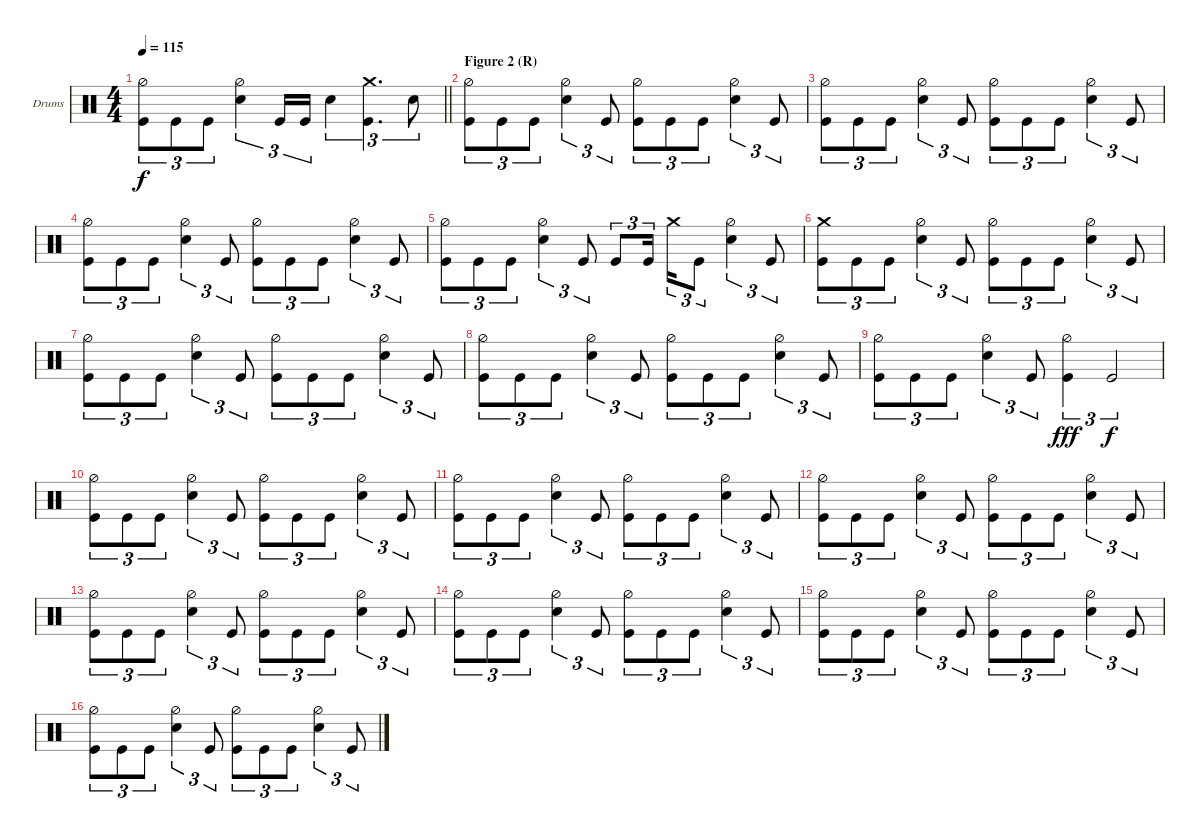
\defaultSystemsLayout 4
\bracketExtendMode groupsimilarinstruments
\firstSystemTrackNameOrientation horizontal
\otherSystemsTrackNameOrientation horizontal
\track ("Drums" "Drums") {instrument percussion}
\staff {score}
\articulation defaults
\ts (4 4)
\tempo 115
\clef neutral
\barLineRight lightlight
\ks aminor
("Kick (hit)" "Hi-Hat (half)").8{tu (3 2) dy f} "Kick (hit)".8{tu (3 2)} "Kick (hit)".8{tu (3 2)} ("Snare (hit) 2" "Hi-Hat (half)").4{tu (3 2)} "Kick (hit)".16{tu (3 2)} "Kick (hit)".16{tu (3 2)} "Snare (hit) 2".4{tu (3 2)} ("Crash medium (hit)" "Kick (hit)").4{d tu (3 2)} "Snare (hit) 2".8{tu (3 2)} |
\section ("" "Figure 2 (R)")
("Kick (hit)" "Hi-Hat (half)").8{tu (3 2)} "Kick (hit)".8{tu (3 2)} "Kick (hit)".8{tu (3 2)} ("Snare (hit) 2" "Hi-Hat (half)").4{tu (3 2)} "Kick (hit)".8{tu (3 2)} ("Kick (hit)" "Hi-Hat (half)").8{tu (3 2)} "Kick (hit)".8{tu (3 2)} "Kick (hit)".8{tu (3 2)} ("Snare (hit) 2" "Hi-Hat (half)").4{tu (3 2)} "Kick (hit)".8{tu (3 2)} |
("Kick (hit)" "Hi-Hat (half)").8{tu (3 2)} "Kick (hit)".8{tu (3 2)} "Kick (hit)".8{tu (3 2)} ("Snare (hit) 2" "Hi-Hat (half)").4{tu (3 2)} "Kick (hit)".8{tu (3 2)} ("Kick (hit)" "Hi-Hat (half)").8{tu (3 2)} "Kick (hit)".8{tu (3 2)} "Kick (hit)".8{tu (3 2)} ("Snare (hit) 2" "Hi-Hat (half)").4{tu (3 2)} "Kick (hit)".8{tu (3 2)} |
("Kick (hit)" "Hi-Hat (half)").8{tu (3 2)} "Kick (hit)".8{tu (3 2)} "Kick (hit)".8{tu (3 2)} ("Snare (hit) 2" "Hi-Hat (half)").4{tu (3 2)} "Kick (hit)".8{tu (3 2)} ("Kick (hit)" "Hi-Hat (half)").8{tu (3 2)} "Kick (hit)".8{tu (3 2)} "Kick (hit)".8{tu (3 2)} ("Snare (hit) 2" "Hi-Hat (half)").4{tu (3 2)} "Kick (hit)".8{tu (3 2)} |
("Kick (hit)" "Hi-Hat (half)").8{tu (3 2)} "Kick (hit)".8{tu (3 2)} "Kick (hit)".8{tu (3 2)} ("Snare (hit) 2" "Hi-Hat (half)").4{tu (3 2)} "Kick (hit)".8{tu (3 2)} "Kick (hit)".8{tu (3 2)} "Kick (hit)".16{tu (3 2)} "Crash medium (hit)".16{tu (3 2)} "Kick (hit)".8{tu (3 2)} ("Snare (hit) 2" "Hi-Hat (half)").4{tu (3 2)} "Kick (hit)".8{tu (3 2)} |
("Kick (hit)" "Crash medium (hit)").8{tu (3 2)} "Kick (hit)".8{tu (3 2)} "Kick (hit)".8{tu (3 2)} ("Snare (hit) 2" "Hi-Hat (half)").4{tu (3 2)} "Kick (hit)".8{tu (3 2)} ("Kick (hit)" "Hi-Hat (half)").8{tu (3 2)} "Kick (hit)".8{tu (3 2)} "Kick (hit)".8{tu (3 2)} ("Snare (hit) 2" "Hi-Hat (half)").4{tu (3 2)} "Kick (hit)".8{tu (3 2)} |
("Kick (hit)" "Hi-Hat (half)").8{tu (3 2)} "Kick (hit)".8{tu (3 2)} "Kick (hit)".8{tu (3 2)} ("Snare (hit) 2" "Hi-Hat (half)").4{tu (3 2)} "Kick (hit)".8{tu (3 2)} ("Kick (hit)" "Hi-Hat (half)").8{tu (3 2)} "Kick (hit)".8{tu (3 2)} "Kick (hit)".8{tu (3 2)} ("Snare (hit) 2" "Hi-Hat (half)").4{tu (3 2)} "Kick (hit)".8{tu (3 2)} |
("Kick (hit)" "Hi-Hat (half)").8{tu (3 2)} "Kick (hit)".8{tu (3 2)} "Kick (hit)".8{tu (3 2)} ("Snare (hit) 2" "Hi-Hat (half)").4{tu (3 2)} "Kick (hit)".8{tu (3 2)} ("Kick (hit)" "Hi-Hat (half)").8{tu (3 2)} "Kick (hit)".8{tu (3 2)} "Kick (hit)".8{tu (3 2)} ("Snare (hit) 2" "Hi-Hat (half)").4{tu (3 2)} "Kick (hit)".8{tu (3 2)} |
("Kick (hit)" "Hi-Hat (half)").8{tu (3 2)} "Kick (hit)".8{tu (3 2)} "Kick (hit)".8{tu (3 2)} ("Snare (hit) 2" "Hi-Hat (half)").4{tu (3 2)} "Kick (hit)".8{tu (3 2)} ("Kick (hit)" "Hi-Hat (half)").4{tu (3 2) dy fff} "Kick (hit)".2{tu (3 2) dy f} |
("Kick (hit)" "Hi-Hat (half)").8{tu (3 2)} "Kick (hit)".8{tu (3 2)} "Kick (hit)".8{tu (3 2)} ("Snare (hit) 2" "Hi-Hat (half)").4{tu (3 2)} "Kick (hit)".8{tu (3 2)} ("Kick (hit)" "Hi-Hat (half)").8{tu (3 2)} "Kick (hit)".8{tu (3 2)} "Kick (hit)".8{tu (3 2)} ("Snare (hit) 2" "Hi-Hat (half)").4{tu (3 2)} "Kick (hit)".8{tu (3 2)} |
("Kick (hit)" "Hi-Hat (half)").8{tu (3 2)} "Kick (hit)".8{tu (3 2)} "Kick (hit)".8{tu (3 2)} ("Snare (hit) 2" "Hi-Hat (half)").4{tu (3 2)} "Kick (hit)".8{tu (3 2)} ("Kick (hit)" "Hi-Hat (half)").8{tu (3 2)} "Kick (hit)".8{tu (3 2)} "Kick (hit)".8{tu (3 2)} ("Snare (hit) 2" "Hi-Hat (half)").4{tu (3 2)} "Kick (hit)".8{tu (3 2)} |
("Kick (hit)" "Hi-Hat (half)").8{tu (3 2)} "Kick (hit)".8{tu (3 2)} "Kick (hit)".8{tu (3 2)} ("Snare (hit) 2" "Hi-Hat (half)").4{tu (3 2)} "Kick (hit)".8{tu (3 2)} ("Kick (hit)" "Hi-Hat (half)").8{tu (3 2)} "Kick (hit)".8{tu (3 2)} "Kick (hit)".8{tu (3 2)} ("Snare (hit) 2" "Hi-Hat (half)").4{tu (3 2)} "Kick (hit)".8{tu (3 2)} |
("Kick (hit)" "Hi-Hat (half)").8{tu (3 2)} "Kick (hit)".8{tu (3 2)} "Kick (hit)".8{tu (3 2)} ("Snare (hit) 2" "Hi-Hat (half)").4{tu (3 2)} "Kick (hit)".8{tu (3 2)} ("Kick (hit)" "Hi-Hat (half)").8{tu (3 2)} "Kick (hit)".8{tu (3 2)} "Kick (hit)".8{tu (3 2)} ("Snare (hit) 2" "Hi-Hat (half)").4{tu (3 2)} "Kick (hit)".8{tu (3 2)} |
("Kick (hit)" "Hi-Hat (half)").8{tu (3 2)} "Kick (hit)".8{tu (3 2)} "Kick (hit)".8{tu (3 2)} ("Snare (hit) 2" "Hi-Hat (half)").4{tu (3 2)} "Kick (hit)".8{tu (3 2)} ("Kick (hit)" "Hi-Hat (half)").8{tu (3 2)} "Kick (hit)".8{tu (3 2)} "Kick (hit)".8{tu (3 2)} ("Snare (hit) 2" "Hi-Hat (half)").4{tu (3 2)} "Kick (hit)".8{tu (3 2)} |
("Kick (hit)" "Hi-Hat (half)").8{tu (3 2)} "Kick (hit)".8{tu (3 2)} "Kick (hit)".8{tu (3 2)} ("Snare (hit) 2" "Hi-Hat (half)").4{tu (3 2)} "Kick (hit)".8{tu (3 2)} ("Kick (hit)" "Hi-Hat (half)").8{tu (3 2)} "Kick (hit)".8{tu (3 2)} "Kick (hit)".8{tu (3 2)} ("Snare (hit) 2" "Hi-Hat (half)").4{tu (3 2)} "Kick (hit)".8{tu (3 2)} |
("Kick (hit)" "Hi-Hat (half)").8{tu (3 2)} "Kick (hit)".8{tu (3 2)} "Kick (hit)".8{tu (3 2)} ("Snare (hit) 2" "Hi-Hat (half)").4{tu (3 2)} "Kick (hit)".8{tu (3 2)} ("Kick (hit)" "Hi-Hat (half)").8{tu (3 2)} "Kick (hit)".8{tu (3 2)} "Kick (hit)".8{tu (3 2)} ("Snare (hit) 2" "Hi-Hat (half)").4{tu (3 2)} "Kick (hit)".8{tu (3 2)}
